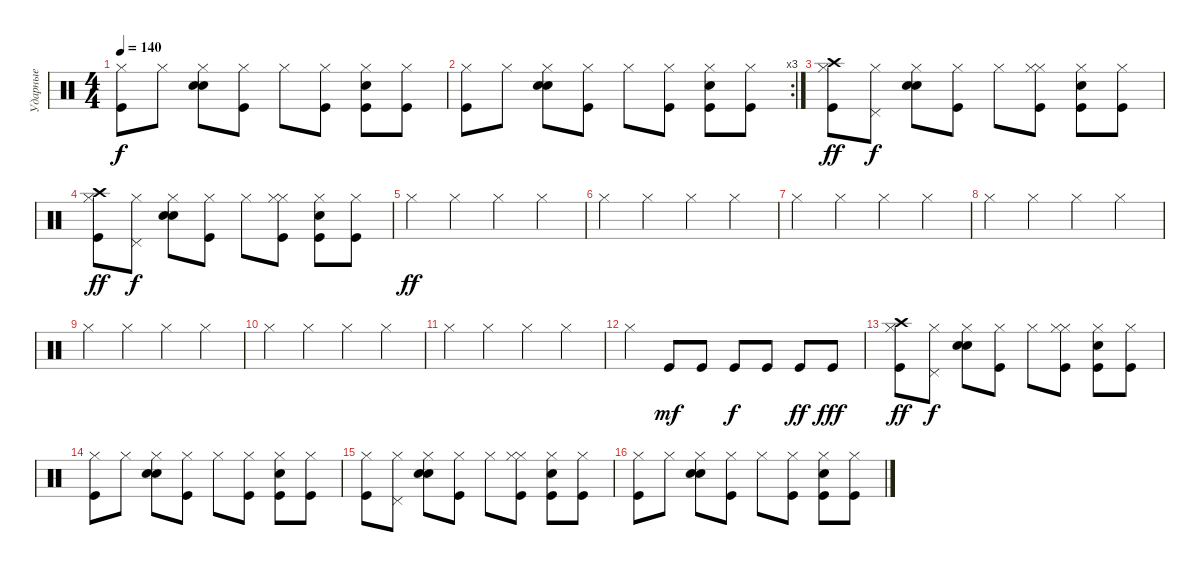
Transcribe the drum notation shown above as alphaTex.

\track ("Ударные" "Ударные") {instrument percussion}
\staff {score}
\articulation defaults
\ts (4 4)
\tempo 140
\clef neutral
\ks c
("Hi-Hat (closed)" "Kick (hit)").8{dy f} "Hi-Hat (closed)".8 ("Hi-Hat (closed)" "Snare (hit) 2" "Snare (hit) 2").8 ("Hi-Hat (closed)" "Kick (hit)").8 "Hi-Hat (closed)".8 ("Hi-Hat (closed)" "Kick (hit)").8 ("Hi-Hat (closed)" "Snare (hit) 2" "Kick (hit)").8 ("Hi-Hat (closed)" "Kick (hit)").8 |
\rc 3
("Hi-Hat (closed)" "Kick (hit)").8 "Hi-Hat (closed)".8 ("Hi-Hat (closed)" "Snare (hit) 2" "Snare (hit) 2").8 ("Hi-Hat (closed)" "Kick (hit)").8 "Hi-Hat (closed)".8 ("Hi-Hat (closed)" "Kick (hit)").8 ("Hi-Hat (closed)" "Snare (hit) 2" "Kick (hit)").8 ("Hi-Hat (closed)" "Kick (hit)").8 |
("Crash high (hit)" "Hi-Hat (closed)" "Kick (hit)").8{dy ff} ("Hi-Hat (closed)" "Pedal Hi-Hat (hit)").8{dy f} ("Hi-Hat (closed)" "Snare (hit) 2" "Snare (hit) 2").8 ("Hi-Hat (closed)" "Kick (hit)").8 "Hi-Hat (closed)".8 ("Hi-Hat (closed)" "Hi-Hat (closed)" "Kick (hit)").8 ("Hi-Hat (closed)" "Snare (hit) 2" "Kick (hit)").8 ("Hi-Hat (closed)" "Kick (hit)").8 |
("Crash high (hit)" "Hi-Hat (closed)" "Kick (hit)").8{dy ff} ("Hi-Hat (closed)" "Pedal Hi-Hat (hit)").8{dy f} ("Hi-Hat (closed)" "Snare (hit) 2" "Snare (hit) 2").8 ("Hi-Hat (closed)" "Kick (hit)").8 "Hi-Hat (closed)".8 ("Hi-Hat (closed)" "Hi-Hat (closed)" "Kick (hit)").8 ("Hi-Hat (closed)" "Snare (hit) 2" "Kick (hit)").8 ("Hi-Hat (closed)" "Kick (hit)").8 |
"Hi-Hat (closed)".4{dy ff} "Hi-Hat (closed)".4 "Hi-Hat (closed)".4 "Hi-Hat (closed)".4 |
"Hi-Hat (closed)".4 "Hi-Hat (closed)".4 "Hi-Hat (closed)".4 "Hi-Hat (closed)".4 |
"Hi-Hat (closed)".4 "Hi-Hat (closed)".4 "Hi-Hat (closed)".4 "Hi-Hat (closed)".4 |
"Hi-Hat (closed)".4 "Hi-Hat (closed)".4 "Hi-Hat (closed)".4 "Hi-Hat (closed)".4 |
"Hi-Hat (closed)".4 "Hi-Hat (closed)".4 "Hi-Hat (closed)".4 "Hi-Hat (closed)".4 |
"Hi-Hat (closed)".4 "Hi-Hat (closed)".4 "Hi-Hat (closed)".4 "Hi-Hat (closed)".4 |
"Hi-Hat (closed)".4 "Hi-Hat (closed)".4 "Hi-Hat (closed)".4 "Hi-Hat (closed)".4 |
"Hi-Hat (closed)".4 "Kick (hit)".8{dy mf} "Kick (hit)".8 "Kick (hit)".8{dy f} "Kick (hit)".8 "Kick (hit)".8{dy ff} "Kick (hit)".8{dy fff} |
("Crash high (hit)" "Hi-Hat (closed)" "Kick (hit)").8{dy ff} ("Hi-Hat (closed)" "Pedal Hi-Hat (hit)").8{dy f} ("Hi-Hat (closed)" "Snare (hit) 2" "Snare (hit) 2").8 ("Hi-Hat (closed)" "Kick (hit)").8 "Hi-Hat (closed)".8 ("Hi-Hat (closed)" "Hi-Hat (closed)" "Kick (hit)").8 ("Hi-Hat (closed)" "Snare (hit) 2" "Kick (hit)").8 ("Hi-Hat (closed)" "Kick (hit)").8 |
("Hi-Hat (closed)" "Kick (hit)").8 "Hi-Hat (closed)".8 ("Hi-Hat (closed)" "Snare (hit) 2" "Snare (hit) 2").8 ("Hi-Hat (closed)" "Kick (hit)").8 "Hi-Hat (closed)".8 ("Hi-Hat (closed)" "Kick (hit)").8 ("Hi-Hat (closed)" "Snare (hit) 2" "Kick (hit)").8 ("Hi-Hat (closed)" "Kick (hit)").8 |
("Hi-Hat (closed)" "Kick (hit)").8 ("Hi-Hat (closed)" "Pedal Hi-Hat (hit)").8 ("Hi-Hat (closed)" "Snare (hit) 2" "Snare (hit) 2").8 ("Hi-Hat (closed)" "Kick (hit)").8 "Hi-Hat (closed)".8 ("Hi-Hat (closed)" "Hi-Hat (closed)" "Kick (hit)").8 ("Hi-Hat (closed)" "Snare (hit) 2" "Kick (hit)").8 ("Hi-Hat (closed)" "Kick (hit)").8 |
("Hi-Hat (closed)" "Kick (hit)").8 "Hi-Hat (closed)".8 ("Hi-Hat (closed)" "Snare (hit) 2" "Snare (hit) 2").8 ("Hi-Hat (closed)" "Kick (hit)").8 "Hi-Hat (closed)".8 ("Hi-Hat (closed)" "Kick (hit)").8 ("Hi-Hat (closed)" "Snare (hit) 2" "Kick (hit)").8 ("Hi-Hat (closed)" "Kick (hit)").8
